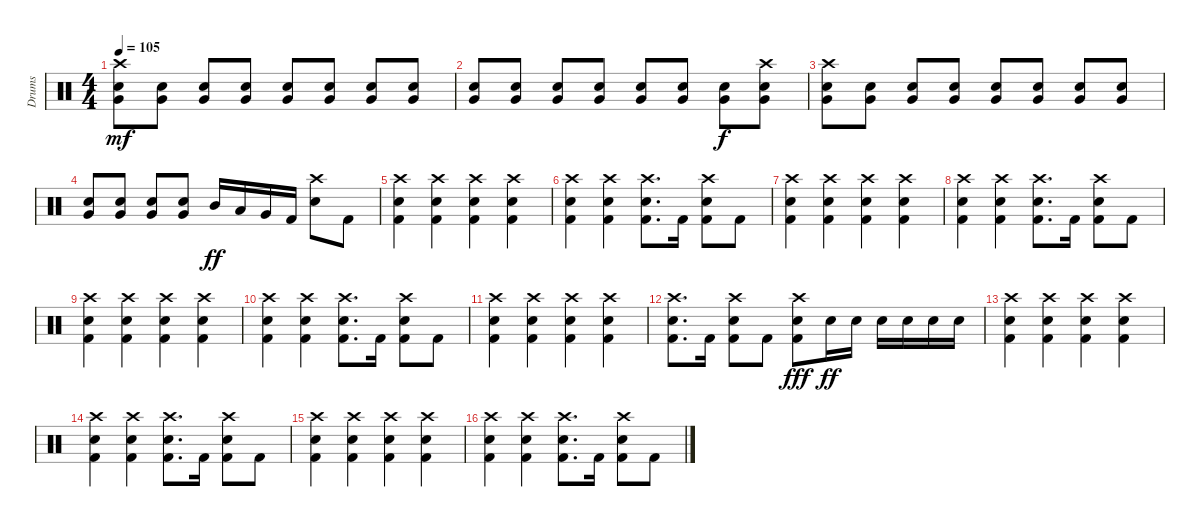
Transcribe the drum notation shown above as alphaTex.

\track ("Drums" "Drums") {instrument percussion}
\staff {score}
\articulation defaults
\ts (4 4)
\tempo 105
\clef neutral
\ks c
("Crash high (hit)" "Snare (hit) 2" "Very Low Tom (hit)").8{dy mf} ("Snare (hit) 2" "Very Low Tom (hit)").8 ("Snare (hit) 2" "Very Low Tom (hit)").8 ("Snare (hit) 2" "Very Low Tom (hit)").8 ("Snare (hit) 2" "Very Low Tom (hit)").8 ("Snare (hit) 2" "Very Low Tom (hit)").8 ("Snare (hit) 2" "Very Low Tom (hit)").8 ("Snare (hit) 2" "Very Low Tom (hit)").8 |
("Snare (hit) 2" "Very Low Tom (hit)").8 ("Snare (hit) 2" "Very Low Tom (hit)").8 ("Snare (hit) 2" "Very Low Tom (hit)").8 ("Snare (hit) 2" "Very Low Tom (hit)").8 ("Snare (hit) 2" "Very Low Tom (hit)").8 ("Snare (hit) 2" "Very Low Tom (hit)").8 ("Snare (hit) 2" "Very Low Tom (hit)").8{dy f} ("Crash high (hit)" "Snare (hit) 2" "Very Low Tom (hit)").8 |
("Crash high (hit)" "Snare (hit) 2" "Very Low Tom (hit)").8 ("Snare (hit) 2" "Very Low Tom (hit)").8 ("Snare (hit) 2" "Very Low Tom (hit)").8 ("Snare (hit) 2" "Very Low Tom (hit)").8 ("Snare (hit) 2" "Very Low Tom (hit)").8 ("Snare (hit) 2" "Very Low Tom (hit)").8 ("Snare (hit) 2" "Very Low Tom (hit)").8 ("Snare (hit) 2" "Very Low Tom (hit)").8 |
("Snare (hit) 2" "Very Low Tom (hit)").8 ("Snare (hit) 2" "Very Low Tom (hit)").8 ("Snare (hit) 2" "Very Low Tom (hit)").8 ("Snare (hit) 2" "Very Low Tom (hit)").8 "Mid Tom (hit)".16{dy ff} "Low Tom (hit)".16 "Very Low Tom (hit)".16 "Kick (hit) 2".16 ("Crash high (hit)" "Snare (hit) 2").8 "Kick (hit) 2".8 |
("Crash high (hit)" "Snare (hit) 2" "Kick (hit) 2").4 ("Crash high (hit)" "Snare (hit) 2" "Kick (hit) 2").4 ("Crash high (hit)" "Snare (hit) 2" "Kick (hit) 2").4 ("Crash high (hit)" "Snare (hit) 2" "Kick (hit) 2").4 |
("Crash high (hit)" "Snare (hit) 2" "Kick (hit) 2").4 ("Crash high (hit)" "Snare (hit) 2" "Kick (hit) 2").4 ("Crash high (hit)" "Snare (hit) 2" "Kick (hit) 2").8{d} "Kick (hit) 2".16 ("Crash high (hit)" "Snare (hit) 2" "Kick (hit) 2").8 "Kick (hit) 2".8 |
("Crash high (hit)" "Snare (hit) 2" "Kick (hit) 2").4 ("Crash high (hit)" "Snare (hit) 2" "Kick (hit) 2").4 ("Crash high (hit)" "Snare (hit) 2" "Kick (hit) 2").4 ("Crash high (hit)" "Snare (hit) 2" "Kick (hit) 2").4 |
("Crash high (hit)" "Snare (hit) 2" "Kick (hit) 2").4 ("Crash high (hit)" "Snare (hit) 2" "Kick (hit) 2").4 ("Crash high (hit)" "Snare (hit) 2" "Kick (hit) 2").8{d} "Kick (hit) 2".16 ("Crash high (hit)" "Snare (hit) 2" "Kick (hit) 2").8 "Kick (hit) 2".8 |
("Crash high (hit)" "Snare (hit) 2" "Kick (hit) 2").4 ("Crash high (hit)" "Snare (hit) 2" "Kick (hit) 2").4 ("Crash high (hit)" "Snare (hit) 2" "Kick (hit) 2").4 ("Crash high (hit)" "Snare (hit) 2" "Kick (hit) 2").4 |
("Crash high (hit)" "Snare (hit) 2" "Kick (hit) 2").4 ("Crash high (hit)" "Snare (hit) 2" "Kick (hit) 2").4 ("Crash high (hit)" "Snare (hit) 2" "Kick (hit) 2").8{d} "Kick (hit) 2".16 ("Crash high (hit)" "Snare (hit) 2" "Kick (hit) 2").8 "Kick (hit) 2".8 |
("Crash high (hit)" "Snare (hit) 2" "Kick (hit) 2").4 ("Crash high (hit)" "Snare (hit) 2" "Kick (hit) 2").4 ("Crash high (hit)" "Snare (hit) 2" "Kick (hit) 2").4 ("Crash high (hit)" "Snare (hit) 2" "Kick (hit) 2").4 |
("Crash high (hit)" "Snare (hit) 2" "Kick (hit) 2").8{d} "Kick (hit) 2".16 ("Crash high (hit)" "Snare (hit) 2" "Kick (hit) 2").8 "Kick (hit) 2".8 ("Crash high (hit)" "Snare (hit) 2" "Kick (hit) 2").8{dy fff} "Snare (hit) 2".16{dy ff} "Snare (hit) 2".16 "Snare (hit) 2".16 "Snare (hit) 2".16 "Snare (hit) 2".16 "Snare (hit) 2".16 |
("Crash high (hit)" "Snare (hit) 2" "Kick (hit) 2").4 ("Crash high (hit)" "Snare (hit) 2" "Kick (hit) 2").4 ("Crash high (hit)" "Snare (hit) 2" "Kick (hit) 2").4 ("Crash high (hit)" "Snare (hit) 2" "Kick (hit) 2").4 |
("Crash high (hit)" "Snare (hit) 2" "Kick (hit) 2").4 ("Crash high (hit)" "Snare (hit) 2" "Kick (hit) 2").4 ("Crash high (hit)" "Snare (hit) 2" "Kick (hit) 2").8{d} "Kick (hit) 2".16 ("Crash high (hit)" "Snare (hit) 2" "Kick (hit) 2").8 "Kick (hit) 2".8 |
("Crash high (hit)" "Snare (hit) 2" "Kick (hit) 2").4 ("Crash high (hit)" "Snare (hit) 2" "Kick (hit) 2").4 ("Crash high (hit)" "Snare (hit) 2" "Kick (hit) 2").4 ("Crash high (hit)" "Snare (hit) 2" "Kick (hit) 2").4 |
("Crash high (hit)" "Snare (hit) 2" "Kick (hit) 2").4 ("Crash high (hit)" "Snare (hit) 2" "Kick (hit) 2").4 ("Crash high (hit)" "Snare (hit) 2" "Kick (hit) 2").8{d} "Kick (hit) 2".16 ("Crash high (hit)" "Snare (hit) 2" "Kick (hit) 2").8 "Kick (hit) 2".8
